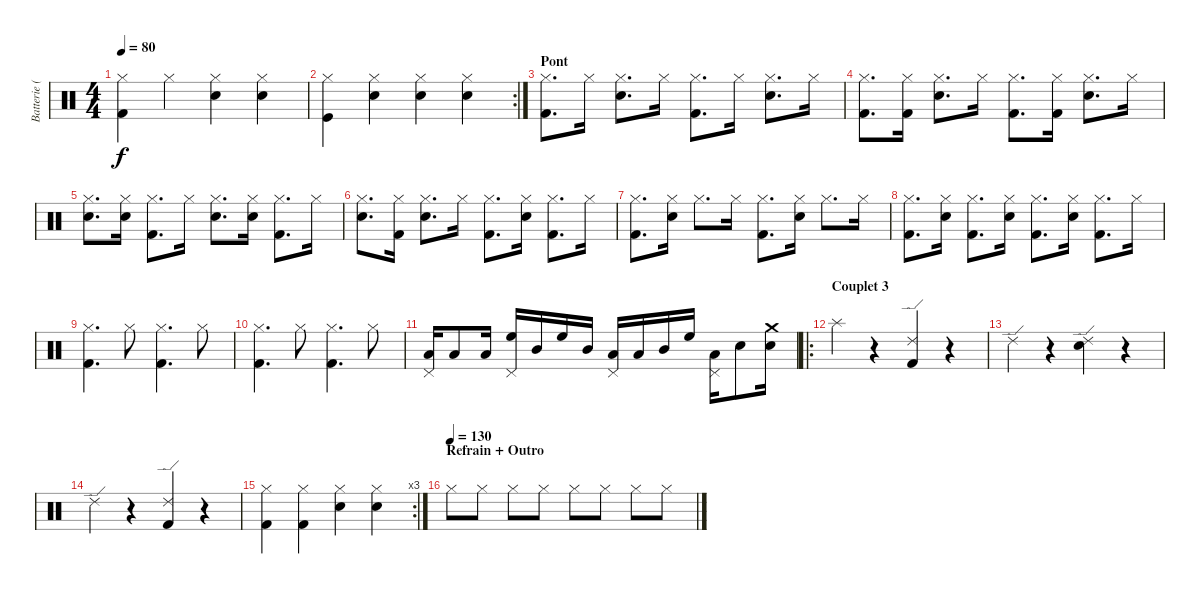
\track ("Batterie (Batmo)" "Batterie (") {instrument percussion}
\staff {score}
\articulation defaults
\ts (4 4)
\tempo 80
\clef neutral
\ks c
("Hi-Hat (closed)" "Kick (hit) 2").4{dy f} "Hi-Hat (closed)".4 ("Hi-Hat (closed)" "Snare (hit) 2").4 ("Hi-Hat (closed)" "Snare (hit) 2").4 |
\rc 2
("Hi-Hat (closed)" "Kick (hit)").4 ("Hi-Hat (closed)" "Snare (hit) 2").4 ("Hi-Hat (closed)" "Snare (hit) 2").4 ("Hi-Hat (closed)" "Snare (hit) 2").4 |
\section ("" "Pont")
("Hi-Hat (closed)" "Kick (hit) 2").8{d} "Hi-Hat (closed)".16 ("Hi-Hat (closed)" "Snare (hit) 2").8{d} "Hi-Hat (closed)".16 ("Hi-Hat (closed)" "Kick (hit) 2").8{d} "Hi-Hat (closed)".16 ("Hi-Hat (closed)" "Snare (hit) 2").8{d} "Hi-Hat (closed)".16 |
("Hi-Hat (closed)" "Kick (hit) 2").8{d} ("Hi-Hat (closed)" "Kick (hit) 2").16 ("Hi-Hat (closed)" "Snare (hit) 2").8{d} "Hi-Hat (closed)".16 ("Hi-Hat (closed)" "Kick (hit) 2").8{d} ("Hi-Hat (closed)" "Kick (hit) 2").16 ("Hi-Hat (closed)" "Snare (hit) 2").8{d} "Hi-Hat (closed)".16 |
("Hi-Hat (closed)" "Snare (hit) 2").8{d} ("Hi-Hat (closed)" "Snare (hit) 2").16 ("Hi-Hat (closed)" "Kick (hit) 2").8{d} "Hi-Hat (closed)".16 ("Hi-Hat (closed)" "Snare (hit) 2").8{d} ("Hi-Hat (closed)" "Snare (hit) 2").16 ("Hi-Hat (closed)" "Kick (hit) 2").8{d} "Hi-Hat (closed)".16 |
("Hi-Hat (closed)" "Snare (hit) 2").8{d} ("Hi-Hat (closed)" "Kick (hit) 2").16 ("Hi-Hat (closed)" "Snare (hit) 2").8{d} "Hi-Hat (closed)".16 ("Hi-Hat (closed)" "Kick (hit) 2").8{d} ("Hi-Hat (closed)" "Snare (hit) 2").16 ("Hi-Hat (closed)" "Kick (hit) 2").8{d} "Hi-Hat (closed)".16 |
("Hi-Hat (closed)" "Kick (hit) 2").8{d} ("Hi-Hat (closed)" "Snare (hit) 2").16 "Hi-Hat (closed)".8{d} "Hi-Hat (closed)".16 ("Hi-Hat (closed)" "Kick (hit) 2").8{d} ("Hi-Hat (closed)" "Snare (hit) 2").16 "Hi-Hat (closed)".8{d} "Hi-Hat (closed)".16 |
("Hi-Hat (closed)" "Kick (hit) 2").8{d} ("Hi-Hat (closed)" "Snare (hit) 2").16 ("Hi-Hat (closed)" "Kick (hit) 2").8{d} ("Hi-Hat (closed)" "Snare (hit) 2").16 ("Hi-Hat (closed)" "Kick (hit) 2").8{d} ("Hi-Hat (closed)" "Snare (hit) 2").16 ("Hi-Hat (closed)" "Kick (hit) 2").8{d} "Hi-Hat (closed)".16 |
("Hi-Hat (closed)" "Kick (hit) 2").4{d} "Hi-Hat (closed)".8 ("Hi-Hat (closed)" "Kick (hit) 2").4{d} "Hi-Hat (closed)".8 |
("Hi-Hat (closed)" "Kick (hit) 2").4{d} "Hi-Hat (closed)".8 ("Hi-Hat (closed)" "Kick (hit) 2").4{d} "Hi-Hat (closed)".8 |
("Pedal Hi-Hat (hit)" "Low Tom (hit)").16 "Low Floor Tom (hit)".8 "Low Tom (hit)".16 ("Pedal Hi-Hat (hit)" "High Floor Tom (hit)").16 "Mid Tom (hit)".16 "High Floor Tom (hit)".16 "Mid Tom (hit)".16 ("Pedal Hi-Hat (hit)" "Low Floor Tom (hit)").16 "Low Tom (hit)".16 "Mid Tom (hit)".16 "High Floor Tom (hit)".16 ("Pedal Hi-Hat (hit)" "Low Tom (hit)").16 "Snare (hit) 2".8 ("Crash medium (hit)" "Snare (hit) 2").16 |
\ro
\section ("" "Couplet 3")
"Splash (hit)".4 r.4 ("Ride (edge) 2" "Kick (hit) 2").4 r.4 |
"Ride (edge) 2".4 r.4 ("Ride (edge) 2" "Snare (hit) 2").4 r.4 |
"Ride (edge) 2".4 r.4 ("Ride (edge) 2" "Kick (hit) 2").4 r.4 |
\rc 3
("Hi-Hat (closed)" "Kick (hit) 2").4 ("Hi-Hat (closed)" "Kick (hit) 2").4 ("Hi-Hat (closed)" "Snare (hit) 2").4 ("Hi-Hat (closed)" "Snare (hit) 2").4 |
\section ("" "Refrain + Outro")
\tempo (130)
"Hi-Hat (closed)".8 "Hi-Hat (closed)".8 "Hi-Hat (closed)".8 "Hi-Hat (closed)".8 "Hi-Hat (closed)".8 "Hi-Hat (closed)".8 "Hi-Hat (closed)".8 "Hi-Hat (closed)".8
